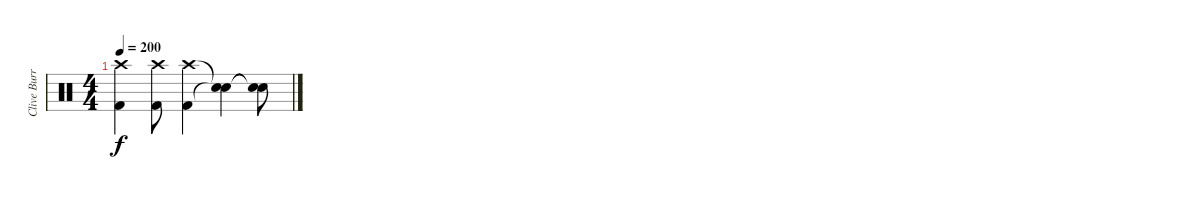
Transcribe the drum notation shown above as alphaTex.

\track ("Clive Burr" "Clive Burr") {instrument percussion}
\staff {score}
\articulation defaults
\ts (4 4)
\tempo 200
\clef neutral
\ks c
("Crash high (hit)" "Kick (hit) 2").4{dy f} ("Crash high (hit)" "Kick (hit) 2").8 ("Crash high (hit)" "Kick (hit) 2").4 ("Snare (hit)"{t} "Snare (hit)"{t}).4 ("Snare (hit)"{t} "Snare (hit)"{t}).8
